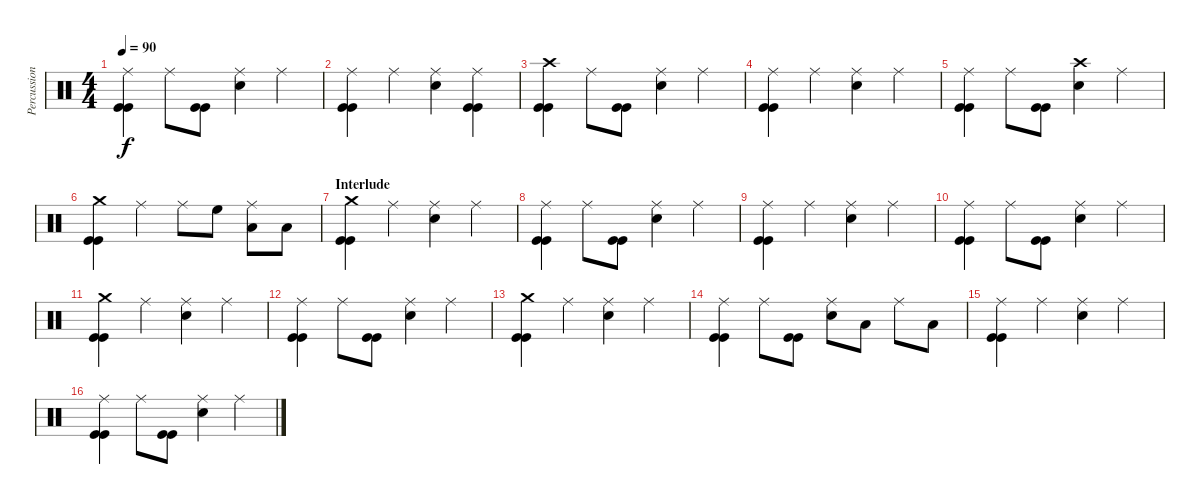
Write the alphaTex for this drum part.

\track ("Percussions" "Percussion") {instrument percussion}
\staff {score}
\articulation defaults
\ts (4 4)
\tempo 90
\clef neutral
\ks c
("Ride (middle)" "Kick (hit)" "Kick (hit)").4{dy f} "Ride (middle)".8 ("Kick (hit)" "Kick (hit)").8 ("Ride (middle)" "Electric Snare (hit)").4 "Ride (middle)".4 |
("Ride (middle)" "Kick (hit)" "Kick (hit)").4 "Ride (middle)".4 ("Ride (middle)" "Electric Snare (hit)").4 ("Ride (middle)" "Kick (hit)" "Kick (hit)").4 |
("Crash high (hit)" "Kick (hit)" "Kick (hit)").4 "Ride (middle)".8 ("Kick (hit)" "Kick (hit)").8 ("Ride (middle)" "Electric Snare (hit)").4 "Ride (middle)".4 |
("Ride (middle)" "Kick (hit)" "Kick (hit)").4 "Ride (middle)".4 ("Ride (middle)" "Electric Snare (hit)").4 "Ride (middle)".4 |
("Ride (middle)" "Kick (hit)" "Kick (hit)").4 "Ride (middle)".8 ("Kick (hit)" "Kick (hit)").8 ("Crash high (hit)" "Electric Snare (hit)").4 "Ride (middle)".4 |
("Crash medium (hit)" "Kick (hit)" "Kick (hit)").4 "Ride (middle)".4 "Ride (middle)".8 "High Floor Tom (hit)".8 ("Ride (middle)" "Low Tom (hit)").8 "Low Floor Tom (hit)".8 |
\section ("" "Interlude")
("Crash medium (hit)" "Kick (hit)" "Kick (hit)").4 "Ride (middle)".4 ("Ride (middle)" "Electric Snare (hit)").4 "Ride (middle)".4 |
("Ride (middle)" "Kick (hit)" "Kick (hit)").4 "Ride (middle)".8 ("Kick (hit)" "Kick (hit)").8 ("Ride (middle)" "Electric Snare (hit)").4 "Ride (middle)".4 |
("Ride (middle)" "Kick (hit)" "Kick (hit)").4 "Ride (middle)".4 ("Ride (middle)" "Electric Snare (hit)").4 "Ride (middle)".4 |
("Ride (middle)" "Kick (hit)" "Kick (hit)").4 "Ride (middle)".8 ("Kick (hit)" "Kick (hit)").8 ("Ride (middle)" "Electric Snare (hit)").4 "Ride (middle)".4 |
("Crash medium (hit)" "Kick (hit)" "Kick (hit)").4 "Ride (middle)".4 ("Ride (middle)" "Electric Snare (hit)").4 "Ride (middle)".4 |
("Ride (middle)" "Kick (hit)" "Kick (hit)").4 "Ride (middle)".8 ("Kick (hit)" "Kick (hit)").8 ("Ride (middle)" "Electric Snare (hit)").4 "Ride (middle)".4 |
("Crash medium (hit)" "Kick (hit)" "Kick (hit)").4 "Ride (middle)".4 ("Ride (middle)" "Electric Snare (hit)").4 "Ride (middle)".4 |
("Ride (middle)" "Kick (hit)" "Kick (hit)").4 "Ride (middle)".8 ("Kick (hit)" "Kick (hit)").8 ("Ride (middle)" "Electric Snare (hit)").8 "Low Tom (hit)".8 "Ride (middle)".8 "Low Floor Tom (hit)".8 |
("Ride (middle)" "Kick (hit)" "Kick (hit)").4 "Ride (middle)".4 ("Ride (middle)" "Electric Snare (hit)").4 "Ride (middle)".4 |
("Ride (middle)" "Kick (hit)" "Kick (hit)").4 "Ride (middle)".8 ("Kick (hit)" "Kick (hit)").8 ("Ride (middle)" "Electric Snare (hit)").4 "Ride (middle)".4
